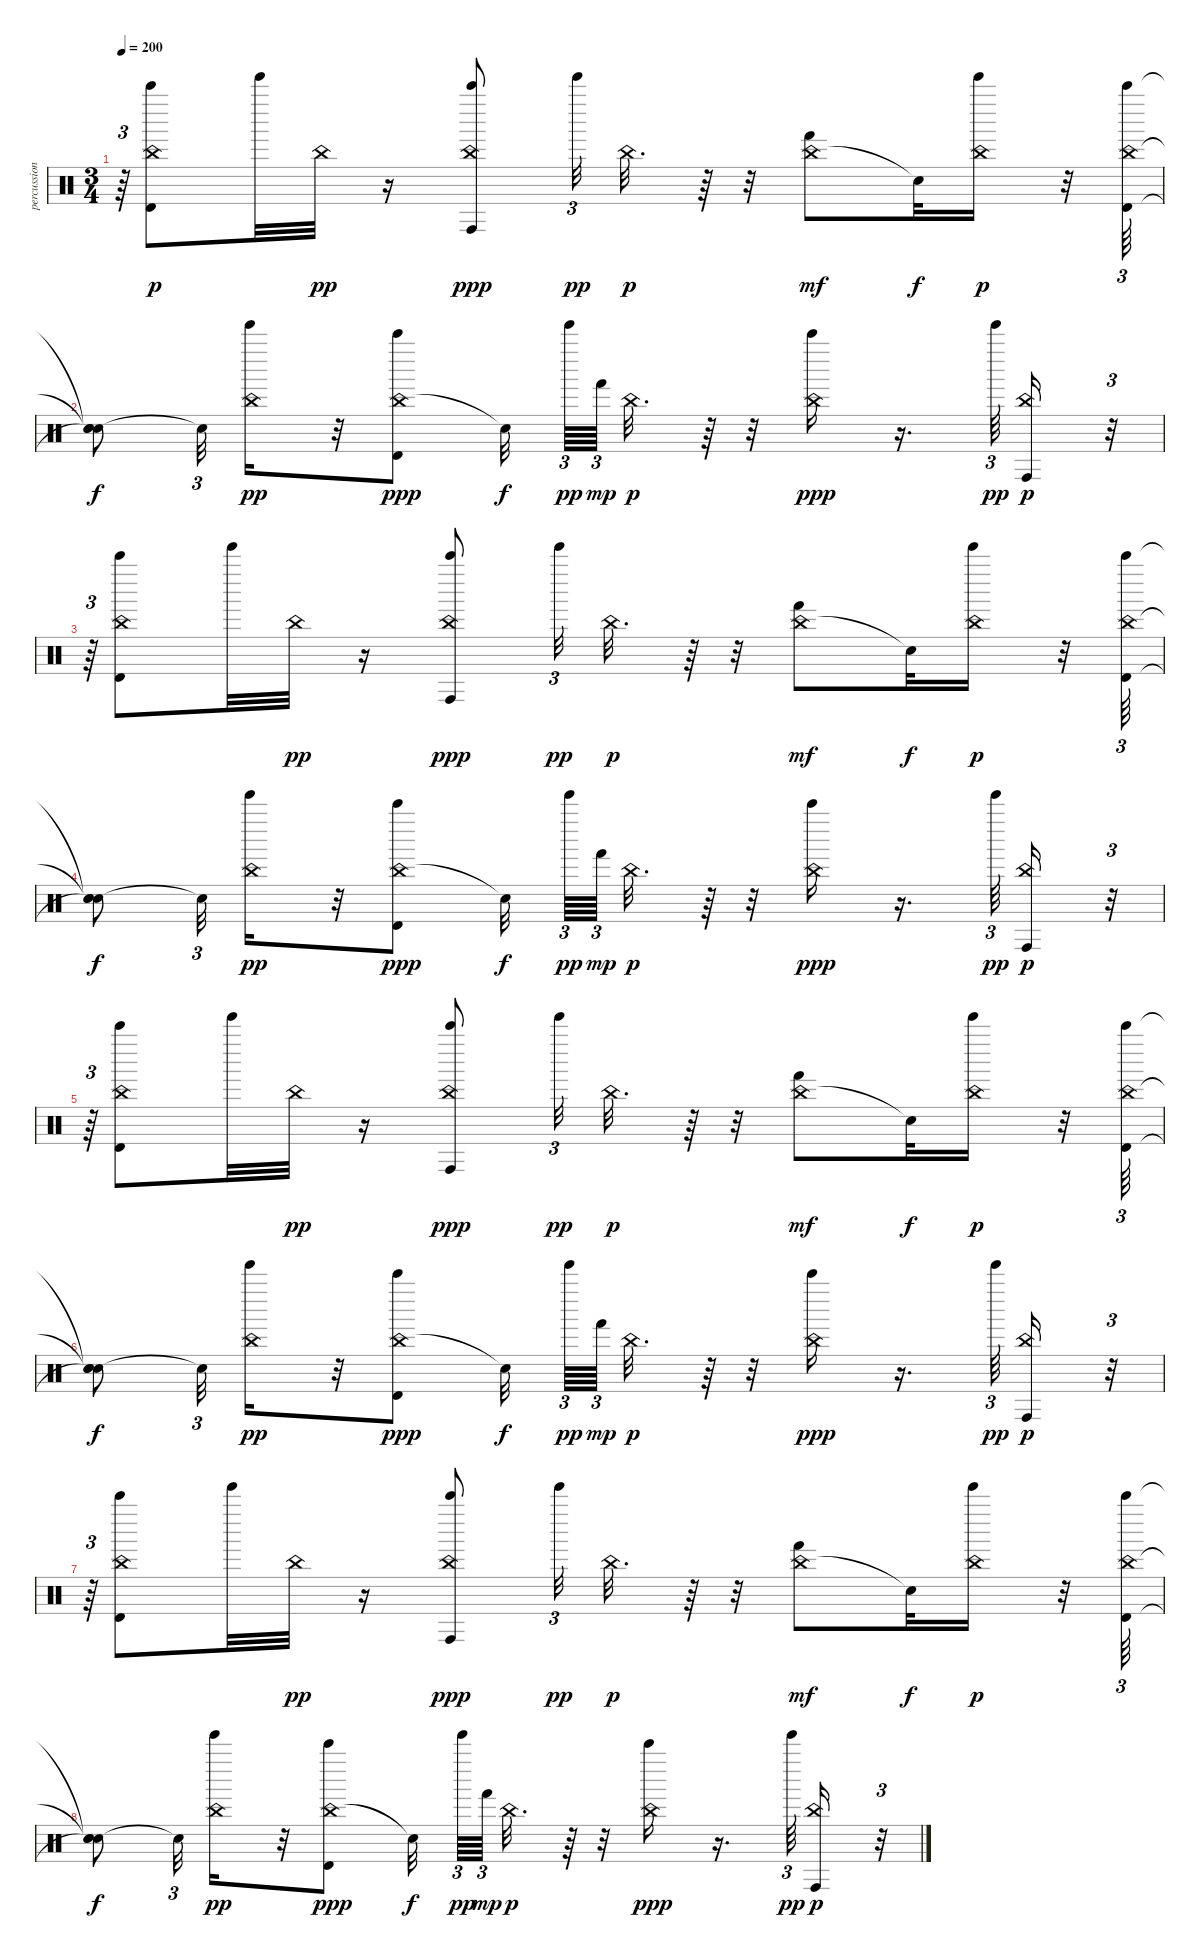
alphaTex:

\track ("percussion" "percussion") {instrument percussion}
\staff {score}
\articulation defaults
\ts (3 4)
\tempo 200
\clef neutral
\ks c
r.64{tu (3 2) dy p} ("China (hit)" "Timbale high (hit)" "Bell Tree (hit)").8 "Tinkle Bell (hit)".32 "China (hit)".32{dy pp} r.16 ("China (hit)" "Conga high (hit)" "Bell Tree (hit)").8{dy ppp} "Tinkle Bell (hit)".32{tu (3 2) dy pp} "China (hit)".32{d dy p} r.64 r.32 ("China (hit)" "Hand (hit)").8{dy mf} "Snare (hit)"{t}.32{dy f} ("Tinkle Bell (hit)" "China (hit)").16{dy p} r.32 ("China (hit)" "Timbale high (hit)" "Bell Tree (hit)").64{tu (3 2)} |
("Snare (hit)"{t} "Snare (hit)"{t} "Snare (hit)"{t}).8{dy f} "Snare (hit)"{t}.32{tu (3 2)} ("Tinkle Bell (hit)" "China (hit)").16{dy pp} r.32 ("China (hit)" "Timbale high (hit)" "Bell Tree (hit)").8{dy ppp} "Snare (hit)"{t}.32{dy f} "Tinkle Bell (hit)".64{tu (3 2) dy pp} "Hand (hit)".64{tu (3 2) dy mp} "China (hit)".32{d dy p} r.64 r.32 ("China (hit)" "Bell Tree (hit)").16{dy ppp} r.16{d} "Tinkle Bell (hit)".64{tu (3 2) dy pp} ("Conga high (hit)" "China (hit)").16{dy p} r.32{tu (3 2)} |
r.64{tu (3 2)} ("China (hit)" "Timbale high (hit)" "Bell Tree (hit)").8 "Tinkle Bell (hit)".32 "China (hit)".32{dy pp} r.16 ("China (hit)" "Conga high (hit)" "Bell Tree (hit)").8{dy ppp} "Tinkle Bell (hit)".32{tu (3 2) dy pp} "China (hit)".32{d dy p} r.64 r.32 ("China (hit)" "Hand (hit)").8{dy mf} "Snare (hit)"{t}.32{dy f} ("Tinkle Bell (hit)" "China (hit)").16{dy p} r.32 ("China (hit)" "Timbale high (hit)" "Bell Tree (hit)").64{tu (3 2)} |
("Snare (hit)"{t} "Snare (hit)"{t} "Snare (hit)"{t}).8{dy f} "Snare (hit)"{t}.32{tu (3 2)} ("Tinkle Bell (hit)" "China (hit)").16{dy pp} r.32 ("China (hit)" "Timbale high (hit)" "Bell Tree (hit)").8{dy ppp} "Snare (hit)"{t}.32{dy f} "Tinkle Bell (hit)".64{tu (3 2) dy pp} "Hand (hit)".64{tu (3 2) dy mp} "China (hit)".32{d dy p} r.64 r.32 ("China (hit)" "Bell Tree (hit)").16{dy ppp} r.16{d} "Tinkle Bell (hit)".64{tu (3 2) dy pp} ("Conga high (hit)" "China (hit)").16{dy p} r.32{tu (3 2)} |
r.64{tu (3 2)} ("China (hit)" "Timbale high (hit)" "Bell Tree (hit)").8 "Tinkle Bell (hit)".32 "China (hit)".32{dy pp} r.16 ("China (hit)" "Conga high (hit)" "Bell Tree (hit)").8{dy ppp} "Tinkle Bell (hit)".32{tu (3 2) dy pp} "China (hit)".32{d dy p} r.64 r.32 ("China (hit)" "Hand (hit)").8{dy mf} "Snare (hit)"{t}.32{dy f} ("Tinkle Bell (hit)" "China (hit)").16{dy p} r.32 ("China (hit)" "Timbale high (hit)" "Bell Tree (hit)").64{tu (3 2)} |
("Snare (hit)"{t} "Snare (hit)"{t} "Snare (hit)"{t}).8{dy f} "Snare (hit)"{t}.32{tu (3 2)} ("Tinkle Bell (hit)" "China (hit)").16{dy pp} r.32 ("China (hit)" "Timbale high (hit)" "Bell Tree (hit)").8{dy ppp} "Snare (hit)"{t}.32{dy f} "Tinkle Bell (hit)".64{tu (3 2) dy pp} "Hand (hit)".64{tu (3 2) dy mp} "China (hit)".32{d dy p} r.64 r.32 ("China (hit)" "Bell Tree (hit)").16{dy ppp} r.16{d} "Tinkle Bell (hit)".64{tu (3 2) dy pp} ("Conga high (hit)" "China (hit)").16{dy p} r.32{tu (3 2)} |
r.64{tu (3 2)} ("China (hit)" "Timbale high (hit)" "Bell Tree (hit)").8 "Tinkle Bell (hit)".32 "China (hit)".32{dy pp} r.16 ("China (hit)" "Conga high (hit)" "Bell Tree (hit)").8{dy ppp} "Tinkle Bell (hit)".32{tu (3 2) dy pp} "China (hit)".32{d dy p} r.64 r.32 ("China (hit)" "Hand (hit)").8{dy mf} "Snare (hit)"{t}.32{dy f} ("Tinkle Bell (hit)" "China (hit)").16{dy p} r.32 ("China (hit)" "Timbale high (hit)" "Bell Tree (hit)").64{tu (3 2)} |
("Snare (hit)"{t} "Snare (hit)"{t} "Snare (hit)"{t}).8{dy f} "Snare (hit)"{t}.32{tu (3 2)} ("Tinkle Bell (hit)" "China (hit)").16{dy pp} r.32 ("China (hit)" "Timbale high (hit)" "Bell Tree (hit)").8{dy ppp} "Snare (hit)"{t}.32{dy f} "Tinkle Bell (hit)".64{tu (3 2) dy pp} "Hand (hit)".64{tu (3 2) dy mp} "China (hit)".32{d dy p} r.64 r.32 ("China (hit)" "Bell Tree (hit)").16{dy ppp} r.16{d} "Tinkle Bell (hit)".64{tu (3 2) dy pp} ("Conga high (hit)" "China (hit)").16{dy p} r.32{tu (3 2)}
